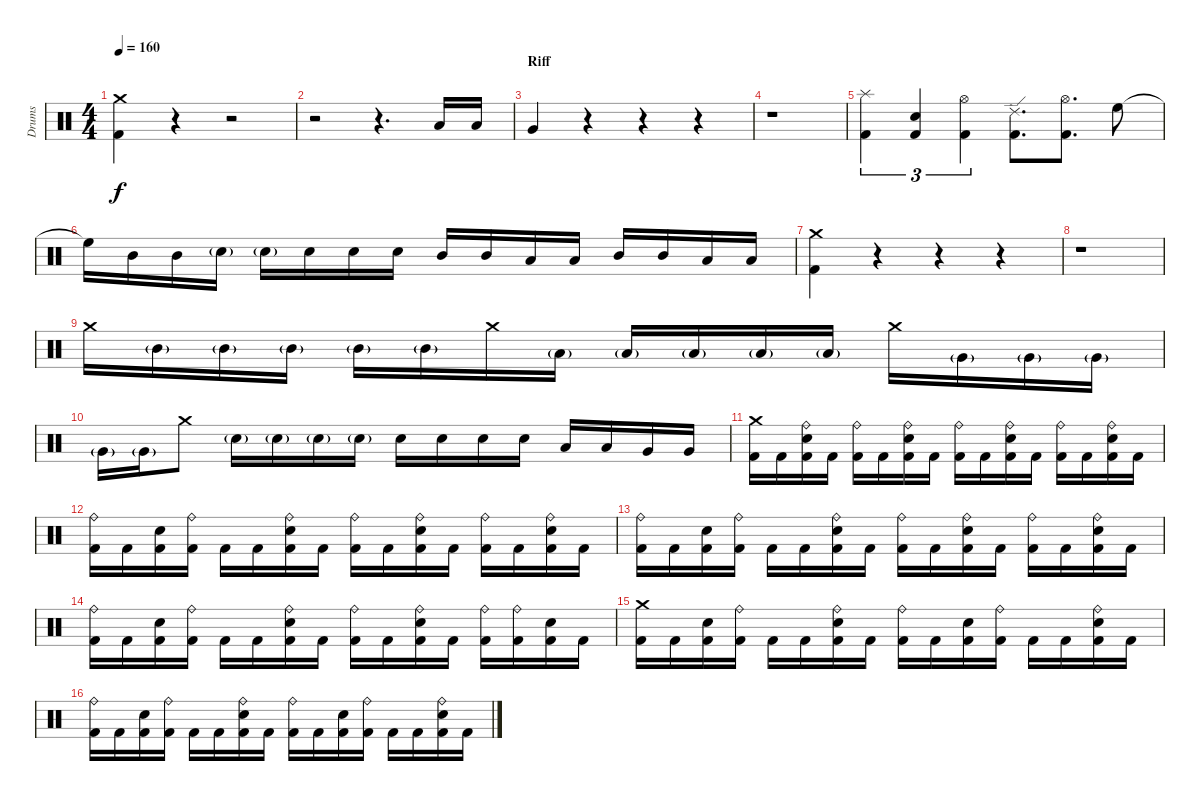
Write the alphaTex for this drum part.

\track ("Drums" "Drums") {instrument percussion}
\staff {score}
\articulation defaults
\ts (4 4)
\tempo 160
\clef neutral
\ks c
("Crash medium (hit)" "Kick (hit) 2").4{dy f} r.4 r.2 |
r.2 r.4{d} "Low Tom (hit)".16 "Low Tom (hit)".16 |
\section ("" "Riff")
"Very Low Tom (hit)".4 r.4 r.4 r.4 |
r.1 |
("Splash (hit)" "Kick (hit) 2").4{tu (3 2)} ("Snare (hit) 2" "Kick (hit) 2").4{tu (3 2)} ("Hi-Hat (open)" "Kick (hit) 2").4{tu (3 2)} ("Ride (edge) 2" "Kick (hit) 2").8{d} ("Hi-Hat (open)" "Kick (hit) 2").8{d} "High Floor Tom (hit)".8 |
"High Floor Tom (hit)"{t}.16 "Mid Tom (hit)".16 "Mid Tom (hit)".16 "Snare (hit) 2"{g}.16 "Snare (hit) 2"{g}.16 "Snare (hit) 2".16 "Snare (hit) 2".16 "Snare (hit) 2".16 "Mid Tom (hit)".16 "Mid Tom (hit)".16 "Low Tom (hit)".16 "Low Tom (hit)".16 "Mid Tom (hit)".16 "Mid Tom (hit)".16 "Low Tom (hit)".16 "Low Tom (hit)".16 |
("Crash medium (hit)" "Kick (hit) 2").4 r.4 r.4 r.4 |
r.1 |
"Crash medium (hit)".16 "Mid Tom (hit)"{g}.16 "Mid Tom (hit)"{g}.16 "Mid Tom (hit)"{g}.16 "Mid Tom (hit)"{g}.16 "Mid Tom (hit)"{g}.16 "Crash medium (hit)".16 "Low Tom (hit)"{g}.16 "Low Tom (hit)"{g}.16 "Low Tom (hit)"{g}.16 "Low Tom (hit)"{g}.16 "Low Tom (hit)"{g}.16 "Crash medium (hit)".16 "Very Low Tom (hit)"{g}.16 "Very Low Tom (hit)"{g}.16 "Very Low Tom (hit)"{g}.16 |
"Very Low Tom (hit)"{g}.16 "Very Low Tom (hit)"{g}.16 "Crash medium (hit)".8 "Snare (hit) 2"{g}.16 "Snare (hit) 2"{g}.16 "Snare (hit) 2"{g}.16 "Snare (hit) 2"{g}.16 "Snare (hit) 2".16 "Snare (hit) 2".16 "Snare (hit) 2".16 "Snare (hit) 2".16 "Low Tom (hit)".16 "Low Tom (hit)".16 "Very Low Tom (hit)".16 "Very Low Tom (hit)".16 |
("Crash medium (hit)" "Kick (hit) 2").16 "Kick (hit) 2".16 ("Ride (bell)" "Snare (hit) 2" "Kick (hit) 2").16 "Kick (hit) 2".16 ("Ride (bell)" "Kick (hit) 2").16 "Kick (hit) 2".16 ("Ride (bell)" "Snare (hit) 2" "Kick (hit) 2").16 "Kick (hit) 2".16 ("Ride (bell)" "Kick (hit) 2").16 "Kick (hit) 2".16 ("Ride (bell)" "Snare (hit) 2" "Kick (hit) 2").16 "Kick (hit) 2".16 ("Ride (bell)" "Kick (hit) 2").16 "Kick (hit) 2".16 ("Ride (bell)" "Snare (hit) 2" "Kick (hit) 2").16 "Kick (hit) 2".16 |
("Ride (bell)" "Kick (hit) 2").16 "Kick (hit) 2".16 ("Snare (hit) 2" "Kick (hit) 2").16 ("Ride (bell)" "Kick (hit) 2").16 "Kick (hit) 2".16 "Kick (hit) 2".16 ("Ride (bell)" "Snare (hit) 2" "Kick (hit) 2").16 "Kick (hit) 2".16 ("Ride (bell)" "Kick (hit) 2").16 "Kick (hit) 2".16 ("Ride (bell)" "Snare (hit) 2" "Kick (hit) 2").16 "Kick (hit) 2".16 ("Ride (bell)" "Kick (hit) 2").16 "Kick (hit) 2".16 ("Ride (bell)" "Snare (hit) 2" "Kick (hit) 2").16 "Kick (hit) 2".16 |
("Ride (bell)" "Kick (hit) 2").16 "Kick (hit) 2".16 ("Snare (hit) 2" "Kick (hit) 2").16 ("Ride (bell)" "Kick (hit) 2").16 "Kick (hit) 2".16 "Kick (hit) 2".16 ("Ride (bell)" "Snare (hit) 2" "Kick (hit) 2").16 "Kick (hit) 2".16 ("Ride (bell)" "Kick (hit) 2").16 "Kick (hit) 2".16 ("Ride (bell)" "Snare (hit) 2" "Kick (hit) 2").16 "Kick (hit) 2".16 ("Ride (bell)" "Kick (hit) 2").16 "Kick (hit) 2".16 ("Ride (bell)" "Snare (hit) 2" "Kick (hit) 2").16 "Kick (hit) 2".16 |
("Ride (bell)" "Kick (hit) 2").16 "Kick (hit) 2".16 ("Snare (hit) 2" "Kick (hit) 2").16 ("Ride (bell)" "Kick (hit) 2").16 "Kick (hit) 2".16 "Kick (hit) 2".16 ("Ride (bell)" "Snare (hit) 2" "Kick (hit) 2").16 "Kick (hit) 2".16 ("Ride (bell)" "Kick (hit) 2").16 "Kick (hit) 2".16 ("Ride (bell)" "Snare (hit) 2" "Kick (hit) 2").16 "Kick (hit) 2".16 ("Ride (bell)" "Kick (hit) 2").16 ("Ride (bell)" "Kick (hit) 2").16 ("Snare (hit) 2" "Kick (hit) 2").16 "Kick (hit) 2".16 |
("Crash medium (hit)" "Kick (hit) 2").16 "Kick (hit) 2".16 ("Snare (hit) 2" "Kick (hit) 2").16 ("Ride (bell)" "Kick (hit) 2").16 "Kick (hit) 2".16 "Kick (hit) 2".16 ("Ride (bell)" "Snare (hit) 2" "Kick (hit) 2").16 "Kick (hit) 2".16 ("Ride (bell)" "Kick (hit) 2").16 "Kick (hit) 2".16 ("Snare (hit) 2" "Kick (hit) 2").16 ("Ride (bell)" "Kick (hit) 2").16 "Kick (hit) 2".16 "Kick (hit) 2".16 ("Ride (bell)" "Snare (hit) 2" "Kick (hit) 2").16 "Kick (hit) 2".16 |
("Ride (bell)" "Kick (hit) 2").16 "Kick (hit) 2".16 ("Snare (hit) 2" "Kick (hit) 2").16 ("Ride (bell)" "Kick (hit) 2").16 "Kick (hit) 2".16 "Kick (hit) 2".16 ("Ride (bell)" "Snare (hit) 2" "Kick (hit) 2").16 "Kick (hit) 2".16 ("Ride (bell)" "Kick (hit) 2").16 "Kick (hit) 2".16 ("Snare (hit) 2" "Kick (hit) 2").16 ("Ride (bell)" "Kick (hit) 2").16 "Kick (hit) 2".16 "Kick (hit) 2".16 ("Ride (bell)" "Snare (hit) 2" "Kick (hit) 2").16 "Kick (hit) 2".16
